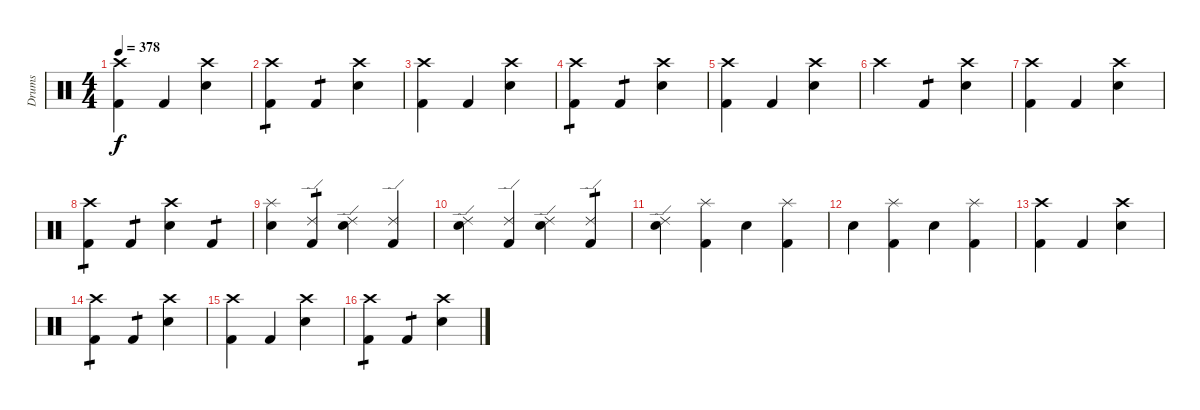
\track ("Drums" "Drums") {instrument percussion}
\staff {score}
\articulation defaults
\ts (4 4)
\tempo 378
\clef neutral
\ks c
("Crash high (hit)" "Kick (hit) 2").4{dy f} "Kick (hit) 2".4 ("Crash high (hit)" "Electric Snare (hit)").4 |
("Crash high (hit)" "Kick (hit) 2").4{tp 1} "Kick (hit) 2".4{tp 1} ("Crash high (hit)" "Electric Snare (hit)").4 |
("Crash high (hit)" "Kick (hit) 2").4 "Kick (hit) 2".4 ("Crash high (hit)" "Electric Snare (hit)").4 |
("Crash high (hit)" "Kick (hit) 2").4{tp 1} "Kick (hit) 2".4{tp 1} ("Crash high (hit)" "Electric Snare (hit)").4 |
("Crash high (hit)" "Kick (hit) 2").4 "Kick (hit) 2".4 ("Crash high (hit)" "Electric Snare (hit)").4 |
"Crash high (hit)".4 "Kick (hit) 2".4{tp 1} ("Crash high (hit)" "Electric Snare (hit)").4 |
("Crash high (hit)" "Kick (hit) 2").4 "Kick (hit) 2".4 ("Crash high (hit)" "Electric Snare (hit)").4 |
("Crash high (hit)" "Kick (hit) 2").4{tp 1} "Kick (hit) 2".4{tp 1} ("Crash high (hit)" "Electric Snare (hit)").4 "Kick (hit) 2".4{tp 1} |
("Splash (hit)" "Electric Snare (hit)").4 ("Ride (edge) 2" "Kick (hit) 2").4{tp 1} ("Ride (edge) 2" "Electric Snare (hit)").4 ("Ride (edge) 2" "Kick (hit) 2").4 |
("Ride (edge) 2" "Electric Snare (hit)").4 ("Ride (edge) 2" "Kick (hit) 2").4 ("Ride (edge) 2" "Electric Snare (hit)").4 ("Ride (edge) 2" "Kick (hit) 2").4{tp 1} |
("Ride (edge) 2" "Electric Snare (hit)").4 ("Splash (hit)" "Kick (hit) 2").4 "Electric Snare (hit)".4 ("Splash (hit)" "Kick (hit) 2").4 |
"Electric Snare (hit)".4 ("Splash (hit)" "Kick (hit) 2").4 "Electric Snare (hit)".4 ("Splash (hit)" "Kick (hit) 2").4 |
("Crash high (hit)" "Kick (hit) 2").4 "Kick (hit) 2".4 ("Crash high (hit)" "Electric Snare (hit)").4 |
("Crash high (hit)" "Kick (hit) 2").4{tp 1} "Kick (hit) 2".4{tp 1} ("Crash high (hit)" "Electric Snare (hit)").4 |
("Crash high (hit)" "Kick (hit) 2").4 "Kick (hit) 2".4 ("Crash high (hit)" "Electric Snare (hit)").4 |
("Crash high (hit)" "Kick (hit) 2").4{tp 1} "Kick (hit) 2".4{tp 1} ("Crash high (hit)" "Electric Snare (hit)").4
